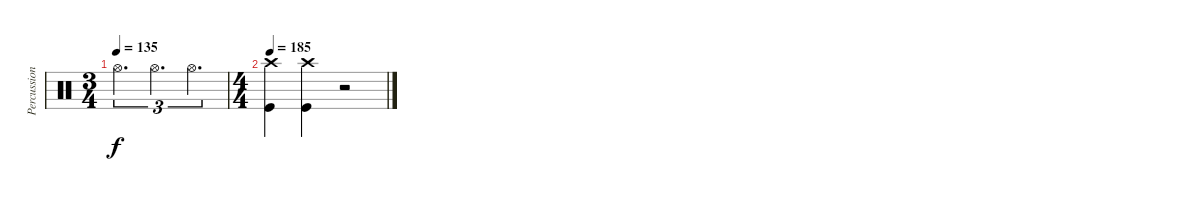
\track ("Percussion" "Percussion") {instrument percussion}
\staff {score}
\articulation defaults
\ts (3 4)
\tempo 135
\clef neutral
\ks c "Hi-Hat (open)".4{d tu (3 2) dy f} "Hi-Hat (open)".4{d tu (3 2)} "Hi-Hat (open)".4{d tu (3 2)}
|
\ts (4 4)
\tempo 185
("Crash high (hit)" "Kick (hit)").4 ("Crash high (hit)" "Kick (hit)").4 r.2
